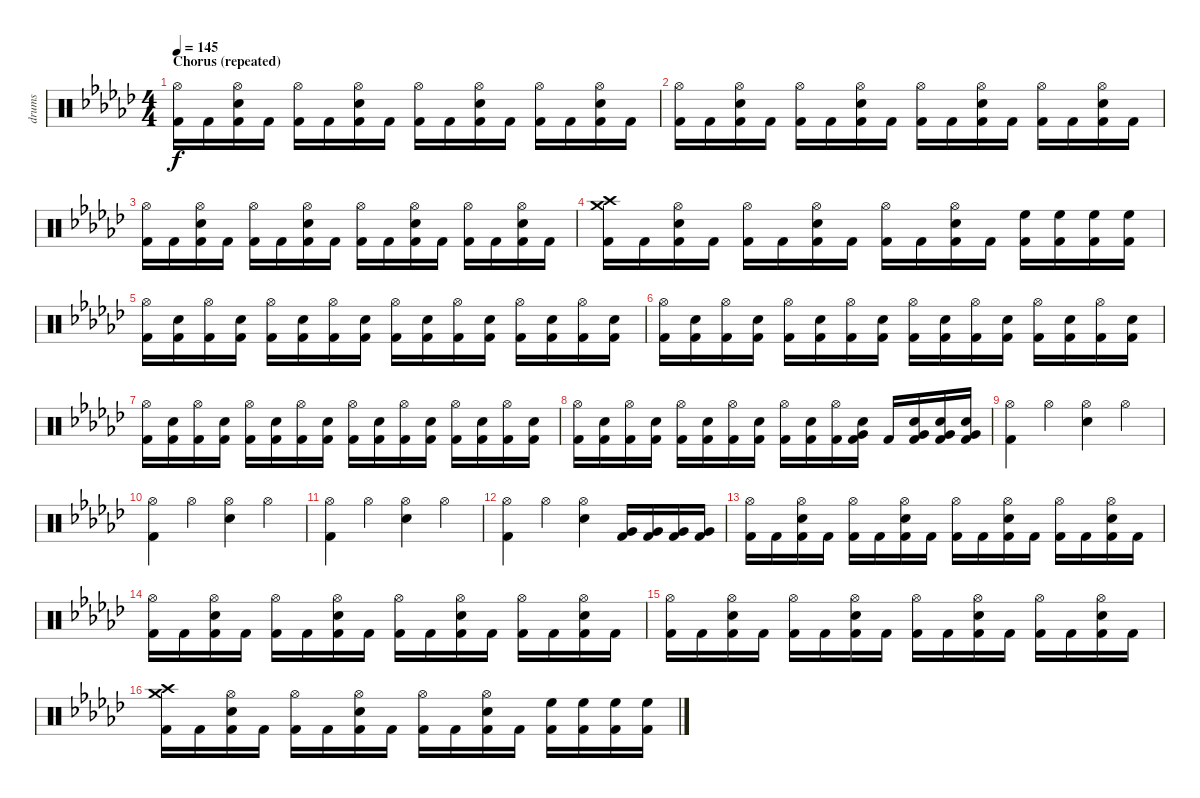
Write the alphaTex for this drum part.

\track ("drums" "drums") {instrument percussion}
\staff {score}
\articulation defaults
\ts (4 4)
\section ("" "Chorus (repeated)")
\tempo 145
\clef neutral
\ks gb
("Hi-Hat (open)" "Kick (hit) 2").16{dy f} "Kick (hit) 2".16 ("Hi-Hat (open)" "Electric Snare (hit)" "Kick (hit) 2").16 "Kick (hit) 2".16 ("Hi-Hat (open)" "Kick (hit) 2").16 "Kick (hit) 2".16 ("Hi-Hat (open)" "Electric Snare (hit)" "Kick (hit) 2").16 "Kick (hit) 2".16 ("Hi-Hat (open)" "Kick (hit) 2").16 "Kick (hit) 2".16 ("Hi-Hat (open)" "Electric Snare (hit)" "Kick (hit) 2").16 "Kick (hit) 2".16 ("Hi-Hat (open)" "Kick (hit) 2").16 "Kick (hit) 2".16 ("Hi-Hat (open)" "Electric Snare (hit)" "Kick (hit) 2").16 "Kick (hit) 2".16 |
("Hi-Hat (open)" "Kick (hit) 2").16 "Kick (hit) 2".16 ("Hi-Hat (open)" "Electric Snare (hit)" "Kick (hit) 2").16 "Kick (hit) 2".16 ("Hi-Hat (open)" "Kick (hit) 2").16 "Kick (hit) 2".16 ("Hi-Hat (open)" "Electric Snare (hit)" "Kick (hit) 2").16 "Kick (hit) 2".16 ("Hi-Hat (open)" "Kick (hit) 2").16 "Kick (hit) 2".16 ("Hi-Hat (open)" "Electric Snare (hit)" "Kick (hit) 2").16 "Kick (hit) 2".16 ("Hi-Hat (open)" "Kick (hit) 2").16 "Kick (hit) 2".16 ("Hi-Hat (open)" "Electric Snare (hit)" "Kick (hit) 2").16 "Kick (hit) 2".16 |
("Hi-Hat (open)" "Kick (hit) 2").16 "Kick (hit) 2".16 ("Hi-Hat (open)" "Electric Snare (hit)" "Kick (hit) 2").16 "Kick (hit) 2".16 ("Hi-Hat (open)" "Kick (hit) 2").16 "Kick (hit) 2".16 ("Hi-Hat (open)" "Electric Snare (hit)" "Kick (hit) 2").16 "Kick (hit) 2".16 ("Hi-Hat (open)" "Kick (hit) 2").16 "Kick (hit) 2".16 ("Hi-Hat (open)" "Electric Snare (hit)" "Kick (hit) 2").16 "Kick (hit) 2".16 ("Hi-Hat (open)" "Kick (hit) 2").16 "Kick (hit) 2".16 ("Hi-Hat (open)" "Electric Snare (hit)" "Kick (hit) 2").16 "Kick (hit) 2".16 |
("Crash high (hit)" "Crash medium (hit)" "Kick (hit) 2").16 "Kick (hit) 2".16 ("Hi-Hat (open)" "Electric Snare (hit)" "Kick (hit) 2").16 "Kick (hit) 2".16 ("Hi-Hat (open)" "Kick (hit) 2").16 "Kick (hit) 2".16 ("Hi-Hat (open)" "Electric Snare (hit)" "Kick (hit) 2").16 "Kick (hit) 2".16 ("Hi-Hat (open)" "Kick (hit) 2").16 "Kick (hit) 2".16 ("Hi-Hat (open)" "Electric Snare (hit)" "Kick (hit) 2").16 "Kick (hit) 2".16 ("High Floor Tom (hit)" "Kick (hit) 2").16 ("High Floor Tom (hit)" "Kick (hit) 2").16 ("High Floor Tom (hit)" "Kick (hit) 2").16 ("High Floor Tom (hit)" "Kick (hit) 2").16 |
("Hi-Hat (open)" "Kick (hit) 2").16 ("Electric Snare (hit)" "Kick (hit) 2").16 ("Hi-Hat (open)" "Kick (hit) 2").16 ("Electric Snare (hit)" "Kick (hit) 2").16 ("Hi-Hat (open)" "Kick (hit) 2").16 ("Electric Snare (hit)" "Kick (hit) 2").16 ("Hi-Hat (open)" "Kick (hit) 2").16 ("Electric Snare (hit)" "Kick (hit) 2").16 ("Hi-Hat (open)" "Kick (hit) 2").16 ("Electric Snare (hit)" "Kick (hit) 2").16 ("Hi-Hat (open)" "Kick (hit) 2").16 ("Electric Snare (hit)" "Kick (hit) 2").16 ("Hi-Hat (open)" "Kick (hit) 2").16 ("Electric Snare (hit)" "Kick (hit) 2").16 ("Hi-Hat (open)" "Kick (hit) 2").16 ("Electric Snare (hit)" "Kick (hit) 2").16 |
("Hi-Hat (open)" "Kick (hit) 2").16 ("Electric Snare (hit)" "Kick (hit) 2").16 ("Hi-Hat (open)" "Kick (hit) 2").16 ("Electric Snare (hit)" "Kick (hit) 2").16 ("Hi-Hat (open)" "Kick (hit) 2").16 ("Electric Snare (hit)" "Kick (hit) 2").16 ("Hi-Hat (open)" "Kick (hit) 2").16 ("Electric Snare (hit)" "Kick (hit) 2").16 ("Hi-Hat (open)" "Kick (hit) 2").16 ("Electric Snare (hit)" "Kick (hit) 2").16 ("Hi-Hat (open)" "Kick (hit) 2").16 ("Electric Snare (hit)" "Kick (hit) 2").16 ("Hi-Hat (open)" "Kick (hit) 2").16 ("Electric Snare (hit)" "Kick (hit) 2").16 ("Hi-Hat (open)" "Kick (hit) 2").16 ("Electric Snare (hit)" "Kick (hit) 2").16 |
("Hi-Hat (open)" "Kick (hit) 2").16 ("Electric Snare (hit)" "Kick (hit) 2").16 ("Hi-Hat (open)" "Kick (hit) 2").16 ("Electric Snare (hit)" "Kick (hit) 2").16 ("Hi-Hat (open)" "Kick (hit) 2").16 ("Electric Snare (hit)" "Kick (hit) 2").16 ("Hi-Hat (open)" "Kick (hit) 2").16 ("Electric Snare (hit)" "Kick (hit) 2").16 ("Hi-Hat (open)" "Kick (hit) 2").16 ("Electric Snare (hit)" "Kick (hit) 2").16 ("Hi-Hat (open)" "Kick (hit) 2").16 ("Electric Snare (hit)" "Kick (hit) 2").16 ("Hi-Hat (open)" "Kick (hit) 2").16 ("Electric Snare (hit)" "Kick (hit) 2").16 ("Hi-Hat (open)" "Kick (hit) 2").16 ("Electric Snare (hit)" "Kick (hit) 2").16 |
("Hi-Hat (open)" "Kick (hit) 2").16 ("Electric Snare (hit)" "Kick (hit) 2").16 ("Hi-Hat (open)" "Kick (hit) 2").16 ("Electric Snare (hit)" "Kick (hit) 2").16 ("Hi-Hat (open)" "Kick (hit) 2").16 ("Electric Snare (hit)" "Kick (hit) 2").16 ("Hi-Hat (open)" "Kick (hit) 2").16 ("Electric Snare (hit)" "Kick (hit) 2").16 ("Hi-Hat (open)" "Kick (hit) 2").16 ("Electric Snare (hit)" "Kick (hit) 2").16 ("Hi-Hat (open)" "Kick (hit) 2").16 ("Electric Snare (hit)" "Very Low Tom (hit)" "Kick (hit) 2").16 "Kick (hit) 2".16 ("Electric Snare (hit)" "Very Low Tom (hit)" "Kick (hit) 2").16 ("Electric Snare (hit)" "Very Low Tom (hit)" "Kick (hit) 2").16 ("Electric Snare (hit)" "Very Low Tom (hit)" "Kick (hit) 2").16 |
("Hi-Hat (open)" "Kick (hit) 2").4 "Hi-Hat (open)".4 ("Hi-Hat (open)" "Electric Snare (hit)").4 "Hi-Hat (open)".4 |
("Hi-Hat (open)" "Kick (hit) 2").4 "Hi-Hat (open)".4 ("Hi-Hat (open)" "Electric Snare (hit)").4 "Hi-Hat (open)".4 |
("Hi-Hat (open)" "Kick (hit) 2").4 "Hi-Hat (open)".4 ("Hi-Hat (open)" "Electric Snare (hit)").4 "Hi-Hat (open)".4 |
("Hi-Hat (open)" "Kick (hit) 2").4 "Hi-Hat (open)".4 ("Hi-Hat (open)" "Electric Snare (hit)").4 ("Very Low Tom (hit)" "Kick (hit) 2").16 ("Very Low Tom (hit)" "Kick (hit) 2").16 ("Very Low Tom (hit)" "Kick (hit) 2").16 ("Very Low Tom (hit)" "Kick (hit) 2").16 |
("Hi-Hat (open)" "Kick (hit) 2").16 "Kick (hit) 2".16 ("Hi-Hat (open)" "Electric Snare (hit)" "Kick (hit) 2").16 "Kick (hit) 2".16 ("Hi-Hat (open)" "Kick (hit) 2").16 "Kick (hit) 2".16 ("Hi-Hat (open)" "Electric Snare (hit)" "Kick (hit) 2").16 "Kick (hit) 2".16 ("Hi-Hat (open)" "Kick (hit) 2").16 "Kick (hit) 2".16 ("Hi-Hat (open)" "Electric Snare (hit)" "Kick (hit) 2").16 "Kick (hit) 2".16 ("Hi-Hat (open)" "Kick (hit) 2").16 "Kick (hit) 2".16 ("Hi-Hat (open)" "Electric Snare (hit)" "Kick (hit) 2").16 "Kick (hit) 2".16 |
("Hi-Hat (open)" "Kick (hit) 2").16 "Kick (hit) 2".16 ("Hi-Hat (open)" "Electric Snare (hit)" "Kick (hit) 2").16 "Kick (hit) 2".16 ("Hi-Hat (open)" "Kick (hit) 2").16 "Kick (hit) 2".16 ("Hi-Hat (open)" "Electric Snare (hit)" "Kick (hit) 2").16 "Kick (hit) 2".16 ("Hi-Hat (open)" "Kick (hit) 2").16 "Kick (hit) 2".16 ("Hi-Hat (open)" "Electric Snare (hit)" "Kick (hit) 2").16 "Kick (hit) 2".16 ("Hi-Hat (open)" "Kick (hit) 2").16 "Kick (hit) 2".16 ("Hi-Hat (open)" "Electric Snare (hit)" "Kick (hit) 2").16 "Kick (hit) 2".16 |
("Hi-Hat (open)" "Kick (hit) 2").16 "Kick (hit) 2".16 ("Hi-Hat (open)" "Electric Snare (hit)" "Kick (hit) 2").16 "Kick (hit) 2".16 ("Hi-Hat (open)" "Kick (hit) 2").16 "Kick (hit) 2".16 ("Hi-Hat (open)" "Electric Snare (hit)" "Kick (hit) 2").16 "Kick (hit) 2".16 ("Hi-Hat (open)" "Kick (hit) 2").16 "Kick (hit) 2".16 ("Hi-Hat (open)" "Electric Snare (hit)" "Kick (hit) 2").16 "Kick (hit) 2".16 ("Hi-Hat (open)" "Kick (hit) 2").16 "Kick (hit) 2".16 ("Hi-Hat (open)" "Electric Snare (hit)" "Kick (hit) 2").16 "Kick (hit) 2".16 |
("Crash high (hit)" "Crash medium (hit)" "Kick (hit) 2").16 "Kick (hit) 2".16 ("Hi-Hat (open)" "Electric Snare (hit)" "Kick (hit) 2").16 "Kick (hit) 2".16 ("Hi-Hat (open)" "Kick (hit) 2").16 "Kick (hit) 2".16 ("Hi-Hat (open)" "Electric Snare (hit)" "Kick (hit) 2").16 "Kick (hit) 2".16 ("Hi-Hat (open)" "Kick (hit) 2").16 "Kick (hit) 2".16 ("Hi-Hat (open)" "Electric Snare (hit)" "Kick (hit) 2").16 "Kick (hit) 2".16 ("High Floor Tom (hit)" "Kick (hit) 2").16 ("High Floor Tom (hit)" "Kick (hit) 2").16 ("High Floor Tom (hit)" "Kick (hit) 2").16 ("High Floor Tom (hit)" "Kick (hit) 2").16
